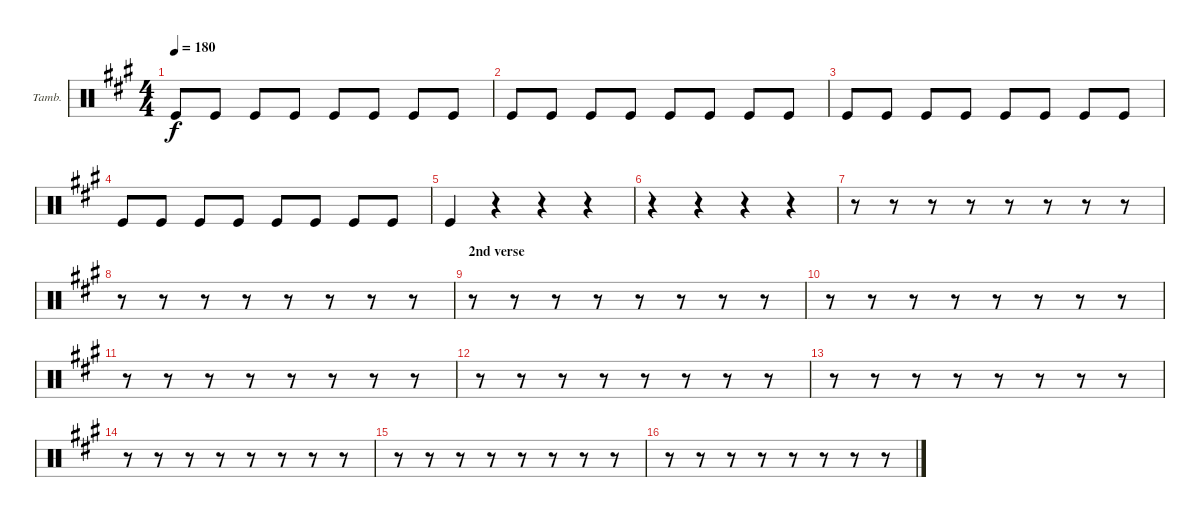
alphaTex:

\bracketExtendMode groupsimilarinstruments
\firstSystemTrackNameOrientation horizontal
\otherSystemsTrackNameOrientation horizontal
\track ("Tambourine" "Tamb.") {instrument percussion}
\staff {score}
\articulation defaults
\ts (4 4)
\tempo 180
\clef neutral
\ks a "Kick (hit)".8{dy f} "Kick (hit)".8 "Kick (hit)".8 "Kick (hit)".8 "Kick (hit)".8 "Kick (hit)".8 "Kick (hit)".8 "Kick (hit)".8
|
"Kick (hit)".8 "Kick (hit)".8 "Kick (hit)".8 "Kick (hit)".8 "Kick (hit)".8 "Kick (hit)".8 "Kick (hit)".8 "Kick (hit)".8 |
"Kick (hit)".8 "Kick (hit)".8 "Kick (hit)".8 "Kick (hit)".8 "Kick (hit)".8 "Kick (hit)".8 "Kick (hit)".8 "Kick (hit)".8 |
"Kick (hit)".8 "Kick (hit)".8 "Kick (hit)".8 "Kick (hit)".8 "Kick (hit)".8 "Kick (hit)".8 "Kick (hit)".8 "Kick (hit)".8 |
"Kick (hit)".4 r.4 r.4 r.4 |
r.4 r.4 r.4 r.4 |
r.8 r.8 r.8 r.8 r.8 r.8 r.8 r.8 |
r.8 r.8 r.8 r.8 r.8 r.8 r.8 r.8 |
\section ("" "2nd verse")
r.8 r.8 r.8 r.8 r.8 r.8 r.8 r.8 |
r.8 r.8 r.8 r.8 r.8 r.8 r.8 r.8 |
r.8 r.8 r.8 r.8 r.8 r.8 r.8 r.8 |
r.8 r.8 r.8 r.8 r.8 r.8 r.8 r.8 |
r.8 r.8 r.8 r.8 r.8 r.8 r.8 r.8 |
r.8 r.8 r.8 r.8 r.8 r.8 r.8 r.8 |
r.8 r.8 r.8 r.8 r.8 r.8 r.8 r.8 |
r.8 r.8 r.8 r.8 r.8 r.8 r.8 r.8
